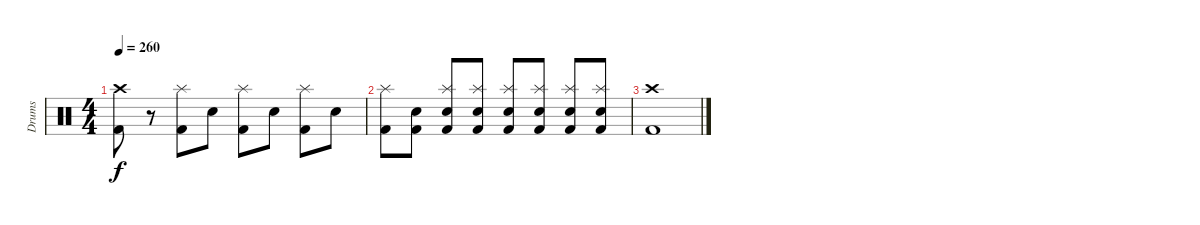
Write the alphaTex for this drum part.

\track ("Drums" "Drums") {instrument percussion}
\staff {score}
\articulation defaults
\ts (4 4)
\tempo 260
\clef neutral
\ks c
("Crash high (hit)" "Kick (hit) 2").8{dy f} r.8 ("Splash (hit)" "Kick (hit) 2").8 "Electric Snare (hit)".8 ("Splash (hit)" "Kick (hit) 2").8 "Electric Snare (hit)".8 ("Splash (hit)" "Kick (hit) 2").8 "Electric Snare (hit)".8 |
("Splash (hit)" "Kick (hit) 2").8 ("Electric Snare (hit)" "Kick (hit) 2").8 ("Splash (hit)" "Electric Snare (hit)" "Kick (hit) 2").8 ("Splash (hit)" "Electric Snare (hit)" "Kick (hit) 2").8 ("Splash (hit)" "Electric Snare (hit)" "Kick (hit) 2").8 ("Splash (hit)" "Electric Snare (hit)" "Kick (hit) 2").8 ("Splash (hit)" "Electric Snare (hit)" "Kick (hit) 2").8 ("Splash (hit)" "Electric Snare (hit)" "Kick (hit) 2").8 |
("Crash high (hit)" "Kick (hit) 2").1
